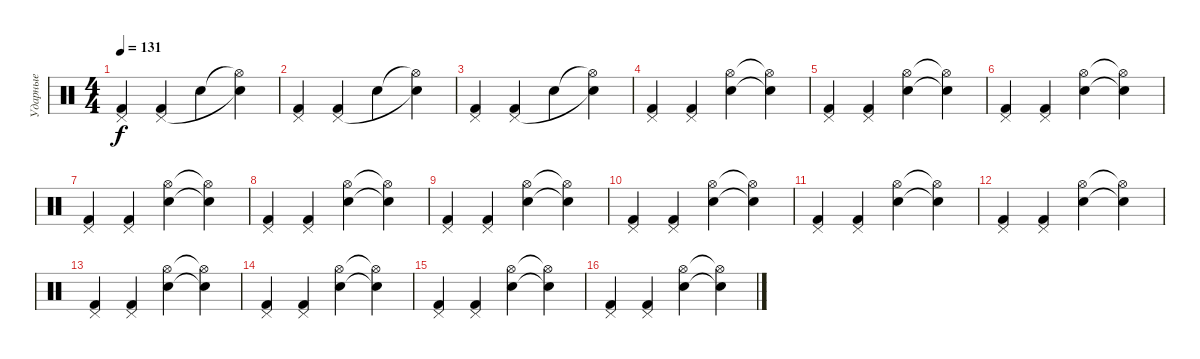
\track ("Ударные" "Ударные") {instrument percussion}
\staff {score}
\articulation defaults
\ts (4 4)
\tempo 131
\clef neutral
\ks c
("Kick (hit) 2" "Pedal Hi-Hat (hit)").4{dy f} ("Kick (hit) 2" "Pedal Hi-Hat (hit)").4 "Snare (hit) 2".4 ("Hi-Hat (open)"{t} "Snare (hit) 2"{t}).4 |
("Kick (hit) 2" "Pedal Hi-Hat (hit)").4 ("Kick (hit) 2" "Pedal Hi-Hat (hit)").4 "Snare (hit) 2".4 ("Hi-Hat (open)"{t} "Snare (hit) 2"{t}).4 |
("Kick (hit) 2" "Pedal Hi-Hat (hit)").4 ("Kick (hit) 2" "Pedal Hi-Hat (hit)").4 "Snare (hit) 2".4 ("Hi-Hat (open)"{t} "Snare (hit) 2"{t}).4 |
("Kick (hit) 2" "Pedal Hi-Hat (hit)").4 ("Kick (hit) 2" "Pedal Hi-Hat (hit)").4 ("Hi-Hat (open)" "Snare (hit) 2").4 ("Hi-Hat (open)"{t} "Snare (hit) 2"{t}).4 |
("Kick (hit) 2" "Pedal Hi-Hat (hit)").4 ("Kick (hit) 2" "Pedal Hi-Hat (hit)").4 ("Hi-Hat (open)" "Snare (hit) 2").4 ("Hi-Hat (open)"{t} "Snare (hit) 2"{t}).4 |
("Kick (hit) 2" "Pedal Hi-Hat (hit)").4 ("Kick (hit) 2" "Pedal Hi-Hat (hit)").4 ("Hi-Hat (open)" "Snare (hit) 2").4 ("Hi-Hat (open)"{t} "Snare (hit) 2"{t}).4 |
("Kick (hit) 2" "Pedal Hi-Hat (hit)").4 ("Kick (hit) 2" "Pedal Hi-Hat (hit)").4 ("Hi-Hat (open)" "Snare (hit) 2").4 ("Hi-Hat (open)"{t} "Snare (hit) 2"{t}).4 |
("Kick (hit) 2" "Pedal Hi-Hat (hit)").4 ("Kick (hit) 2" "Pedal Hi-Hat (hit)").4 ("Hi-Hat (open)" "Snare (hit) 2").4 ("Hi-Hat (open)"{t} "Snare (hit) 2"{t}).4 |
("Kick (hit) 2" "Pedal Hi-Hat (hit)").4 ("Kick (hit) 2" "Pedal Hi-Hat (hit)").4 ("Hi-Hat (open)" "Snare (hit) 2").4 ("Hi-Hat (open)"{t} "Snare (hit) 2"{t}).4 |
("Kick (hit) 2" "Pedal Hi-Hat (hit)").4 ("Kick (hit) 2" "Pedal Hi-Hat (hit)").4 ("Hi-Hat (open)" "Snare (hit) 2").4 ("Hi-Hat (open)"{t} "Snare (hit) 2"{t}).4 |
("Kick (hit) 2" "Pedal Hi-Hat (hit)").4 ("Kick (hit) 2" "Pedal Hi-Hat (hit)").4 ("Hi-Hat (open)" "Snare (hit) 2").4 ("Hi-Hat (open)"{t} "Snare (hit) 2"{t}).4 |
("Kick (hit) 2" "Pedal Hi-Hat (hit)").4 ("Kick (hit) 2" "Pedal Hi-Hat (hit)").4 ("Hi-Hat (open)" "Snare (hit) 2").4 ("Hi-Hat (open)"{t} "Snare (hit) 2"{t}).4 |
("Kick (hit) 2" "Pedal Hi-Hat (hit)").4 ("Kick (hit) 2" "Pedal Hi-Hat (hit)").4 ("Hi-Hat (open)" "Snare (hit) 2").4 ("Hi-Hat (open)"{t} "Snare (hit) 2"{t}).4 |
("Kick (hit) 2" "Pedal Hi-Hat (hit)").4 ("Kick (hit) 2" "Pedal Hi-Hat (hit)").4 ("Hi-Hat (open)" "Snare (hit) 2").4 ("Hi-Hat (open)"{t} "Snare (hit) 2"{t}).4 |
("Kick (hit) 2" "Pedal Hi-Hat (hit)").4 ("Kick (hit) 2" "Pedal Hi-Hat (hit)").4 ("Hi-Hat (open)" "Snare (hit) 2").4 ("Hi-Hat (open)"{t} "Snare (hit) 2"{t}).4 |
("Kick (hit) 2" "Pedal Hi-Hat (hit)").4 ("Kick (hit) 2" "Pedal Hi-Hat (hit)").4 ("Hi-Hat (open)" "Snare (hit) 2").4 ("Hi-Hat (open)"{t} "Snare (hit) 2"{t}).4
